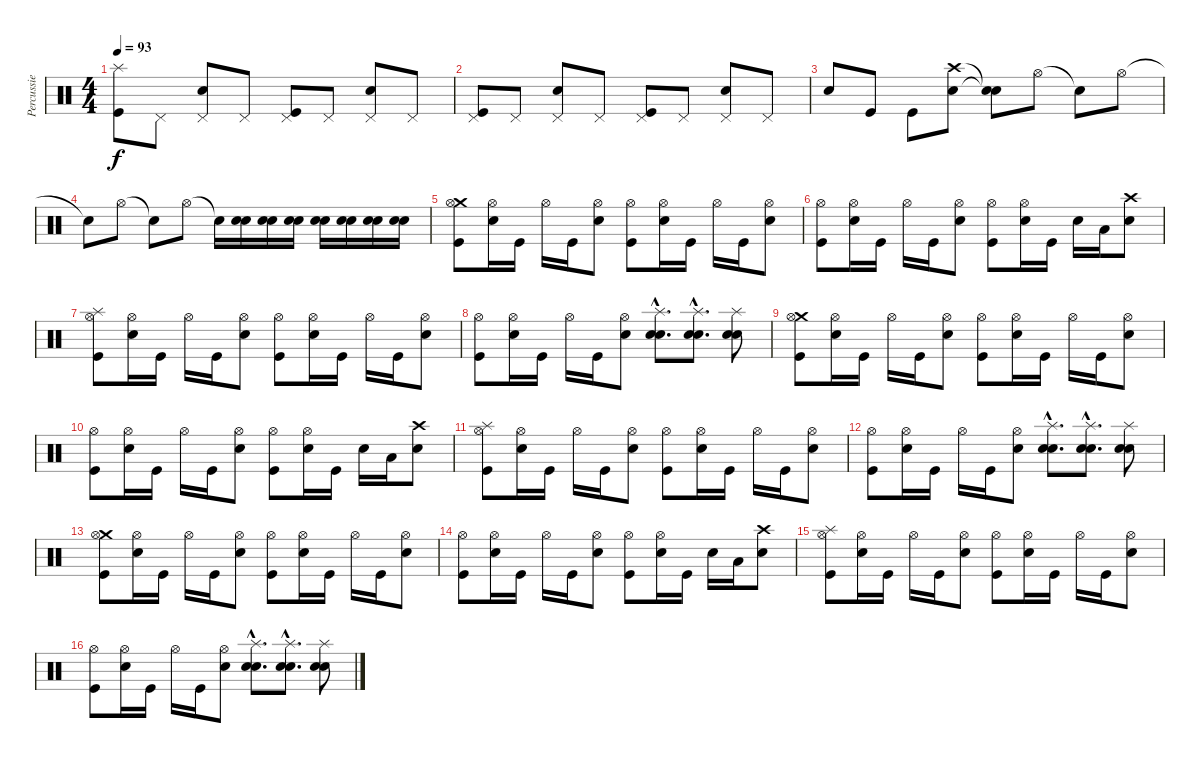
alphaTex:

\track ("Percussie" "Percussie") {instrument percussion}
\staff {score}
\articulation defaults
\ts (4 4)
\tempo 93
\clef neutral
\ks c
("Splash (hit)" "Kick (hit)").8{dy f} "Pedal Hi-Hat (hit)".8 ("Electric Snare (hit)" "Pedal Hi-Hat (hit)").8 "Pedal Hi-Hat (hit)".8 ("Pedal Hi-Hat (hit)" "Kick (hit)").8 "Pedal Hi-Hat (hit)".8 ("Electric Snare (hit)" "Pedal Hi-Hat (hit)").8 "Pedal Hi-Hat (hit)".8 |
("Pedal Hi-Hat (hit)" "Kick (hit)").8 "Pedal Hi-Hat (hit)".8 ("Electric Snare (hit)" "Pedal Hi-Hat (hit)").8 "Pedal Hi-Hat (hit)".8 ("Pedal Hi-Hat (hit)" "Kick (hit)").8 "Pedal Hi-Hat (hit)".8 ("Electric Snare (hit)" "Pedal Hi-Hat (hit)").8 "Pedal Hi-Hat (hit)".8 |
"Electric Snare (hit)".8 "Kick (hit)".8 "Kick (hit)".8 ("Crash high (hit)" "Electric Snare (hit)").8 ("Snare (hit)"{t} "Snare (hit)"{t}).8 "Hi-Hat (open)".8 "Snare (hit)"{t}.8 "Hi-Hat (open)".8 |
"Snare (hit)"{t}.8 "Hi-Hat (open)".8 "Snare (hit)"{t}.8 "Hi-Hat (open)".8 "Snare (hit)"{t}.16 ("Electric Snare (hit)" "Snare (hit) 2").16 ("Electric Snare (hit)" "Snare (hit) 2").16 ("Electric Snare (hit)" "Snare (hit) 2").16 ("Electric Snare (hit)" "Snare (hit) 2").16 ("Electric Snare (hit)" "Snare (hit) 2").16 ("Electric Snare (hit)" "Snare (hit) 2").16 ("Electric Snare (hit)" "Snare (hit) 2").16 |
("Crash medium (hit)" "Hi-Hat (open)" "Kick (hit)").8 ("Electric Snare (hit)" "Hi-Hat (open)").16 "Kick (hit)".16 "Hi-Hat (open)".16 "Kick (hit)".16 ("Electric Snare (hit)" "Hi-Hat (open)").8 ("Hi-Hat (open)" "Kick (hit)").8 ("Electric Snare (hit)" "Hi-Hat (open)").16 "Kick (hit)".16 "Hi-Hat (open)".16 "Kick (hit)".16 ("Electric Snare (hit)" "Hi-Hat (open)").8 |
("Hi-Hat (open)" "Kick (hit)").8 ("Electric Snare (hit)" "Hi-Hat (open)").16 "Kick (hit)".16 "Hi-Hat (open)".16 "Kick (hit)".16 ("Electric Snare (hit)" "Hi-Hat (open)").8 ("Hi-Hat (open)" "Kick (hit)").8 ("Electric Snare (hit)" "Hi-Hat (open)").16 "Kick (hit)".16 "Snare (hit) 2".16 "Low Floor Tom (hit)".16 ("Electric Snare (hit)" "Crash high (hit)").8 |
("Splash (hit)" "Hi-Hat (open)" "Kick (hit)").8 ("Electric Snare (hit)" "Hi-Hat (open)").16 "Kick (hit)".16 "Hi-Hat (open)".16 "Kick (hit)".16 ("Electric Snare (hit)" "Hi-Hat (open)").8 ("Hi-Hat (open)" "Kick (hit)").8 ("Electric Snare (hit)" "Hi-Hat (open)").16 "Kick (hit)".16 "Hi-Hat (open)".16 "Kick (hit)".16 ("Electric Snare (hit)" "Hi-Hat (open)").8 |
("Hi-Hat (open)" "Kick (hit)").8 ("Electric Snare (hit)" "Hi-Hat (open)").16 "Kick (hit)".16 "Hi-Hat (open)".16 "Kick (hit)".16 ("Electric Snare (hit)" "Hi-Hat (open)").8 ("Splash (hit)"{hac} "Electric Snare (hit)"{hac} "Snare (hit) 2"{hac}).8{d} ("Splash (hit)"{hac} "Electric Snare (hit)"{hac} "Snare (hit) 2"{hac}).8{d} ("Splash (hit)" "Electric Snare (hit)" "Snare (hit) 2").8 |
("Crash medium (hit)" "Hi-Hat (open)" "Kick (hit)").8 ("Electric Snare (hit)" "Hi-Hat (open)").16 "Kick (hit)".16 "Hi-Hat (open)".16 "Kick (hit)".16 ("Electric Snare (hit)" "Hi-Hat (open)").8 ("Hi-Hat (open)" "Kick (hit)").8 ("Electric Snare (hit)" "Hi-Hat (open)").16 "Kick (hit)".16 "Hi-Hat (open)".16 "Kick (hit)".16 ("Electric Snare (hit)" "Hi-Hat (open)").8 |
("Hi-Hat (open)" "Kick (hit)").8 ("Electric Snare (hit)" "Hi-Hat (open)").16 "Kick (hit)".16 "Hi-Hat (open)".16 "Kick (hit)".16 ("Electric Snare (hit)" "Hi-Hat (open)").8 ("Hi-Hat (open)" "Kick (hit)").8 ("Electric Snare (hit)" "Hi-Hat (open)").16 "Kick (hit)".16 "Snare (hit) 2".16 "Low Floor Tom (hit)".16 ("Electric Snare (hit)" "Crash high (hit)").8 |
("Splash (hit)" "Hi-Hat (open)" "Kick (hit)").8 ("Electric Snare (hit)" "Hi-Hat (open)").16 "Kick (hit)".16 "Hi-Hat (open)".16 "Kick (hit)".16 ("Electric Snare (hit)" "Hi-Hat (open)").8 ("Hi-Hat (open)" "Kick (hit)").8 ("Electric Snare (hit)" "Hi-Hat (open)").16 "Kick (hit)".16 "Hi-Hat (open)".16 "Kick (hit)".16 ("Electric Snare (hit)" "Hi-Hat (open)").8 |
("Hi-Hat (open)" "Kick (hit)").8 ("Electric Snare (hit)" "Hi-Hat (open)").16 "Kick (hit)".16 "Hi-Hat (open)".16 "Kick (hit)".16 ("Electric Snare (hit)" "Hi-Hat (open)").8 ("Splash (hit)"{hac} "Electric Snare (hit)"{hac} "Snare (hit) 2"{hac}).8{d} ("Splash (hit)"{hac} "Electric Snare (hit)"{hac} "Snare (hit) 2"{hac}).8{d} ("Splash (hit)" "Electric Snare (hit)" "Snare (hit) 2").8 |
("Crash medium (hit)" "Hi-Hat (open)" "Kick (hit)").8 ("Electric Snare (hit)" "Hi-Hat (open)").16 "Kick (hit)".16 "Hi-Hat (open)".16 "Kick (hit)".16 ("Electric Snare (hit)" "Hi-Hat (open)").8 ("Hi-Hat (open)" "Kick (hit)").8 ("Electric Snare (hit)" "Hi-Hat (open)").16 "Kick (hit)".16 "Hi-Hat (open)".16 "Kick (hit)".16 ("Electric Snare (hit)" "Hi-Hat (open)").8 |
("Hi-Hat (open)" "Kick (hit)").8 ("Electric Snare (hit)" "Hi-Hat (open)").16 "Kick (hit)".16 "Hi-Hat (open)".16 "Kick (hit)".16 ("Electric Snare (hit)" "Hi-Hat (open)").8 ("Hi-Hat (open)" "Kick (hit)").8 ("Electric Snare (hit)" "Hi-Hat (open)").16 "Kick (hit)".16 "Snare (hit) 2".16 "Low Floor Tom (hit)".16 ("Electric Snare (hit)" "Crash high (hit)").8 |
("Splash (hit)" "Hi-Hat (open)" "Kick (hit)").8 ("Electric Snare (hit)" "Hi-Hat (open)").16 "Kick (hit)".16 "Hi-Hat (open)".16 "Kick (hit)".16 ("Electric Snare (hit)" "Hi-Hat (open)").8 ("Hi-Hat (open)" "Kick (hit)").8 ("Electric Snare (hit)" "Hi-Hat (open)").16 "Kick (hit)".16 "Hi-Hat (open)".16 "Kick (hit)".16 ("Electric Snare (hit)" "Hi-Hat (open)").8 |
("Hi-Hat (open)" "Kick (hit)").8 ("Electric Snare (hit)" "Hi-Hat (open)").16 "Kick (hit)".16 "Hi-Hat (open)".16 "Kick (hit)".16 ("Electric Snare (hit)" "Hi-Hat (open)").8 ("Splash (hit)"{hac} "Electric Snare (hit)"{hac} "Snare (hit) 2"{hac}).8{d} ("Splash (hit)"{hac} "Electric Snare (hit)"{hac} "Snare (hit) 2"{hac}).8{d} ("Splash (hit)" "Electric Snare (hit)" "Snare (hit) 2").8
